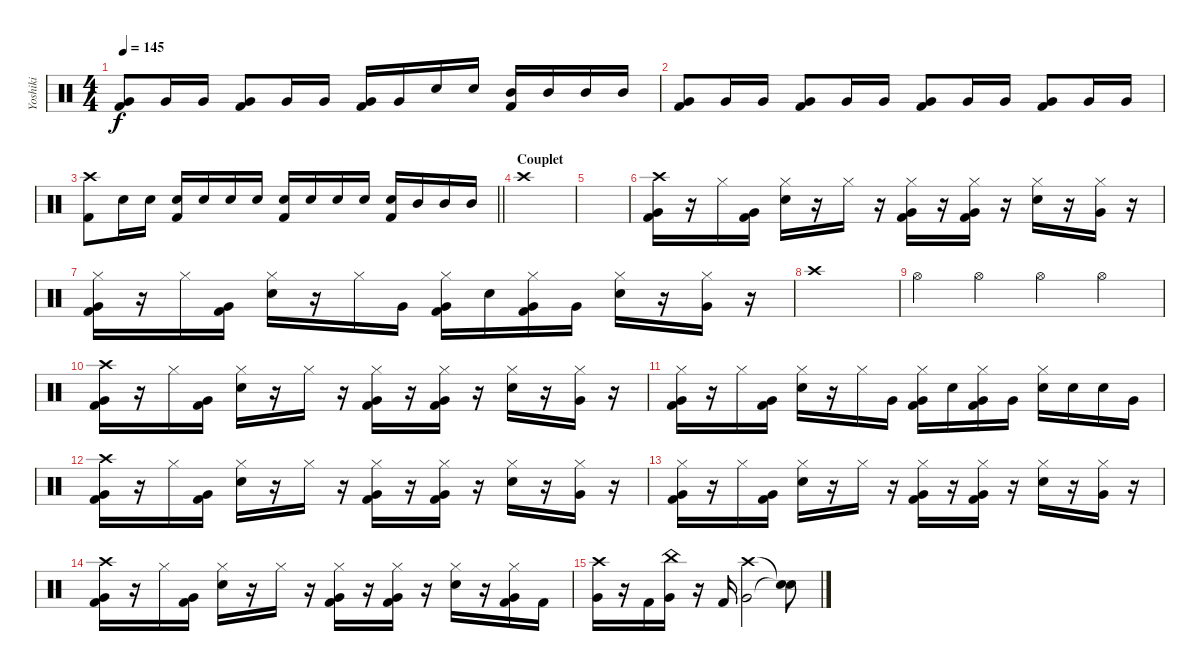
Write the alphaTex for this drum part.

\track ("Yoshiki" "Yoshiki") {instrument percussion}
\staff {score}
\articulation defaults
\ts (4 4)
\tempo 145
\clef neutral
\ks c
("Very Low Tom (hit)" "Kick (hit) 2").8{dy f} "Very Low Tom (hit)".16 "Very Low Tom (hit)".16 ("Very Low Tom (hit)" "Kick (hit) 2").8 "Very Low Tom (hit)".16 "Very Low Tom (hit)".16 ("Very Low Tom (hit)" "Kick (hit) 2").16 "Very Low Tom (hit)".16 "Snare (hit) 2".16 "Snare (hit) 2".16 ("Mid Tom (hit)" "Kick (hit) 2").16 "Mid Tom (hit)".16 "Mid Tom (hit)".16 "Mid Tom (hit)".16 |
("Very Low Tom (hit)" "Kick (hit) 2").8 "Very Low Tom (hit)".16 "Very Low Tom (hit)".16 ("Very Low Tom (hit)" "Kick (hit) 2").8 "Very Low Tom (hit)".16 "Very Low Tom (hit)".16 ("Very Low Tom (hit)" "Kick (hit) 2").8 "Very Low Tom (hit)".16 "Very Low Tom (hit)".16 ("Very Low Tom (hit)" "Kick (hit) 2").8 "Very Low Tom (hit)".16 "Very Low Tom (hit)".16 |
\barLineRight lightlight
("Crash high (hit)" "Kick (hit) 2").8 "Snare (hit) 2".16 "Snare (hit) 2".16 ("Snare (hit) 2" "Kick (hit) 2").16 "Snare (hit) 2".16 "Snare (hit) 2".16 "Snare (hit) 2".16 ("Snare (hit) 2" "Kick (hit) 2").16 "Snare (hit) 2".16 "Snare (hit) 2".16 "Snare (hit) 2".16 ("Snare (hit) 2" "Kick (hit) 2").16 "Mid Tom (hit)".16 "Mid Tom (hit)".16 "Mid Tom (hit)".16 |
\section ("" "Couplet")
"Crash high (hit)".1 |
|
("Crash high (hit)" "Very Low Tom (hit)" "Kick (hit) 2").16 r.16 "Hi-Hat (closed)".16 ("Very Low Tom (hit)" "Kick (hit) 2").16 ("Hi-Hat (closed)" "Snare (hit) 2").16 r.16 "Hi-Hat (closed)".16 r.16 ("Hi-Hat (closed)" "Very Low Tom (hit)" "Kick (hit) 2").16 r.16 ("Hi-Hat (closed)" "Very Low Tom (hit)" "Kick (hit) 2").16 r.16 ("Hi-Hat (closed)" "Snare (hit) 2").16 r.16 ("Hi-Hat (closed)" "Very Low Tom (hit)").16 r.16 |
("Hi-Hat (closed)" "Very Low Tom (hit)" "Kick (hit) 2").16 r.16 "Hi-Hat (closed)".16 ("Very Low Tom (hit)" "Kick (hit) 2").16 ("Hi-Hat (closed)" "Snare (hit) 2").16 r.16 "Hi-Hat (closed)".16 "Very Low Tom (hit)".16 ("Hi-Hat (closed)" "Very Low Tom (hit)" "Kick (hit) 2").16 "Snare (hit) 2".16 ("Hi-Hat (closed)" "Very Low Tom (hit)" "Kick (hit) 2").16 "Very Low Tom (hit)".16 ("Hi-Hat (closed)" "Snare (hit) 2").16 r.16 ("Hi-Hat (closed)" "Very Low Tom (hit)").16 r.16 |
"Crash high (hit)".1 |
"Hi-Hat (open)".4 "Hi-Hat (open)".4 "Hi-Hat (open)".4 "Hi-Hat (open)".4 |
("Crash high (hit)" "Very Low Tom (hit)" "Kick (hit) 2").16 r.16 "Hi-Hat (closed)".16 ("Very Low Tom (hit)" "Kick (hit) 2").16 ("Hi-Hat (closed)" "Snare (hit) 2").16 r.16 "Hi-Hat (closed)".16 r.16 ("Hi-Hat (closed)" "Very Low Tom (hit)" "Kick (hit) 2").16 r.16 ("Hi-Hat (closed)" "Very Low Tom (hit)" "Kick (hit) 2").16 r.16 ("Hi-Hat (closed)" "Snare (hit) 2").16 r.16 ("Hi-Hat (closed)" "Very Low Tom (hit)").16 r.16 |
("Hi-Hat (closed)" "Very Low Tom (hit)" "Kick (hit) 2").16 r.16 "Hi-Hat (closed)".16 ("Very Low Tom (hit)" "Kick (hit) 2").16 ("Hi-Hat (closed)" "Snare (hit) 2").16 r.16 "Hi-Hat (closed)".16 "Very Low Tom (hit)".16 ("Hi-Hat (closed)" "Very Low Tom (hit)" "Kick (hit) 2").16 "Snare (hit) 2".16 ("Hi-Hat (closed)" "Very Low Tom (hit)" "Kick (hit) 2").16 "Very Low Tom (hit)".16 ("Hi-Hat (closed)" "Snare (hit) 2").16 "Snare (hit) 2".16 "Snare (hit) 2".16 "Very Low Tom (hit)".16 |
("Crash high (hit)" "Very Low Tom (hit)" "Kick (hit) 2").16 r.16 "Hi-Hat (closed)".16 ("Very Low Tom (hit)" "Kick (hit) 2").16 ("Hi-Hat (closed)" "Snare (hit) 2").16 r.16 "Hi-Hat (closed)".16 r.16 ("Hi-Hat (closed)" "Very Low Tom (hit)" "Kick (hit) 2").16 r.16 ("Hi-Hat (closed)" "Very Low Tom (hit)" "Kick (hit) 2").16 r.16 ("Hi-Hat (closed)" "Snare (hit) 2").16 r.16 ("Hi-Hat (closed)" "Very Low Tom (hit)").16 r.16 |
("Hi-Hat (closed)" "Very Low Tom (hit)" "Kick (hit) 2").16 r.16 "Hi-Hat (closed)".16 ("Very Low Tom (hit)" "Kick (hit) 2").16 ("Hi-Hat (closed)" "Snare (hit) 2").16 r.16 "Hi-Hat (closed)".16 r.16 ("Hi-Hat (closed)" "Very Low Tom (hit)" "Kick (hit) 2").16 r.16 ("Hi-Hat (closed)" "Very Low Tom (hit)" "Kick (hit) 2").16 r.16 ("Hi-Hat (closed)" "Snare (hit) 2").16 r.16 ("Hi-Hat (closed)" "Very Low Tom (hit)").16 r.16 |
("Crash high (hit)" "Very Low Tom (hit)" "Kick (hit) 2").16 r.16 "Hi-Hat (closed)".16 ("Very Low Tom (hit)" "Kick (hit) 2").16 ("Hi-Hat (closed)" "Snare (hit) 2").16 r.16 "Hi-Hat (closed)".16 r.16 ("Hi-Hat (closed)" "Very Low Tom (hit)" "Kick (hit) 2").16 r.16 ("Hi-Hat (closed)" "Very Low Tom (hit)" "Kick (hit) 2").16 r.16 ("Hi-Hat (closed)" "Snare (hit) 2").16 r.16 ("Hi-Hat (closed)" "Very Low Tom (hit)" "Kick (hit) 2").16 "Kick (hit) 2".16 |
("Crash high (hit)" "Very Low Tom (hit)").16 r.16 "Kick (hit) 2".16 ("China (hit)" "Very Low Tom (hit)").16 r.16 "Kick (hit) 2".16 ("Crash high (hit)" "Very Low Tom (hit)").2 ("Snare (hit)"{t} "Snare (hit)"{t}).8
